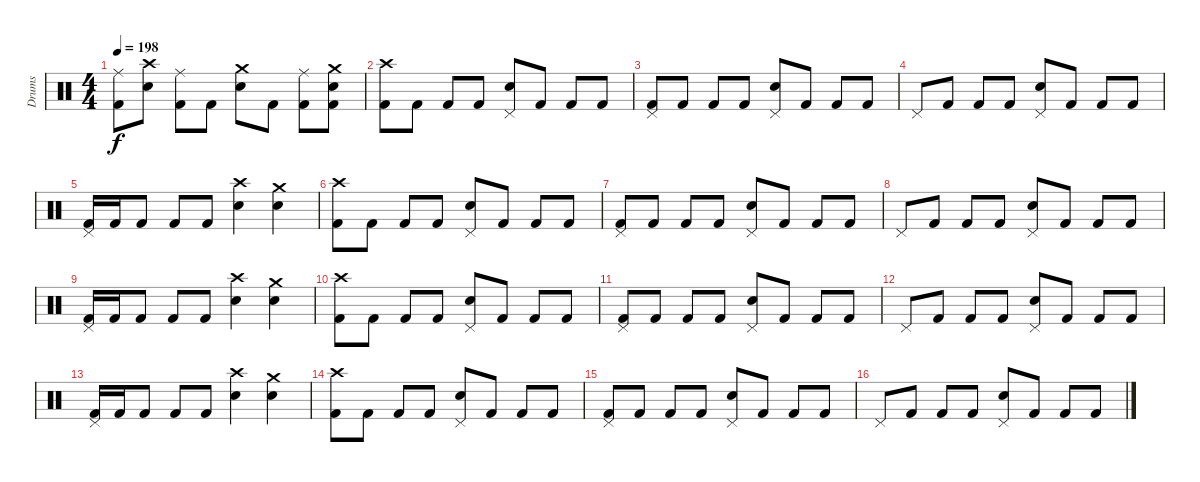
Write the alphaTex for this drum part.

\track ("Drums" "Drums") {instrument percussion}
\staff {score}
\articulation defaults
\ts (4 4)
\tempo 198
\clef neutral
\ks c
("Ride (middle)" "Kick (hit) 2").8{dy f} ("Crash high (hit)" "Electric Snare (hit)").8 ("Ride (middle)" "Kick (hit) 2").8 "Kick (hit) 2".8 ("Crash medium (hit)" "Electric Snare (hit)").8 "Kick (hit) 2".8 ("Ride (middle)" "Kick (hit) 2").8 ("Crash medium (hit)" "Electric Snare (hit)" "Kick (hit) 2").8 |
("Crash high (hit)" "Kick (hit) 2").8 "Kick (hit) 2".8 "Kick (hit) 2".8 "Kick (hit) 2".8 ("Pedal Hi-Hat (hit)" "Electric Snare (hit)").8 "Kick (hit) 2".8 "Kick (hit) 2".8 "Kick (hit) 2".8 |
("Pedal Hi-Hat (hit)" "Kick (hit) 2").8 "Kick (hit) 2".8 "Kick (hit) 2".8 "Kick (hit) 2".8 ("Pedal Hi-Hat (hit)" "Electric Snare (hit)").8 "Kick (hit) 2".8 "Kick (hit) 2".8 "Kick (hit) 2".8 |
"Pedal Hi-Hat (hit)".8 "Kick (hit) 2".8 "Kick (hit) 2".8 "Kick (hit) 2".8 ("Pedal Hi-Hat (hit)" "Electric Snare (hit)").8 "Kick (hit) 2".8 "Kick (hit) 2".8 "Kick (hit) 2".8 |
("Pedal Hi-Hat (hit)" "Kick (hit) 2").16 "Kick (hit) 2".16 "Kick (hit) 2".8 "Kick (hit) 2".8 "Kick (hit) 2".8 ("Crash high (hit)" "Electric Snare (hit)").4 ("Crash medium (hit)" "Electric Snare (hit)").4 |
("Crash high (hit)" "Kick (hit) 2").8 "Kick (hit) 2".8 "Kick (hit) 2".8 "Kick (hit) 2".8 ("Pedal Hi-Hat (hit)" "Electric Snare (hit)").8 "Kick (hit) 2".8 "Kick (hit) 2".8 "Kick (hit) 2".8 |
("Pedal Hi-Hat (hit)" "Kick (hit) 2").8 "Kick (hit) 2".8 "Kick (hit) 2".8 "Kick (hit) 2".8 ("Pedal Hi-Hat (hit)" "Electric Snare (hit)").8 "Kick (hit) 2".8 "Kick (hit) 2".8 "Kick (hit) 2".8 |
"Pedal Hi-Hat (hit)".8 "Kick (hit) 2".8 "Kick (hit) 2".8 "Kick (hit) 2".8 ("Pedal Hi-Hat (hit)" "Electric Snare (hit)").8 "Kick (hit) 2".8 "Kick (hit) 2".8 "Kick (hit) 2".8 |
("Pedal Hi-Hat (hit)" "Kick (hit) 2").16 "Kick (hit) 2".16 "Kick (hit) 2".8 "Kick (hit) 2".8 "Kick (hit) 2".8 ("Crash high (hit)" "Electric Snare (hit)").4 ("Crash medium (hit)" "Electric Snare (hit)").4 |
("Crash high (hit)" "Kick (hit) 2").8 "Kick (hit) 2".8 "Kick (hit) 2".8 "Kick (hit) 2".8 ("Pedal Hi-Hat (hit)" "Electric Snare (hit)").8 "Kick (hit) 2".8 "Kick (hit) 2".8 "Kick (hit) 2".8 |
("Pedal Hi-Hat (hit)" "Kick (hit) 2").8 "Kick (hit) 2".8 "Kick (hit) 2".8 "Kick (hit) 2".8 ("Pedal Hi-Hat (hit)" "Electric Snare (hit)").8 "Kick (hit) 2".8 "Kick (hit) 2".8 "Kick (hit) 2".8 |
"Pedal Hi-Hat (hit)".8 "Kick (hit) 2".8 "Kick (hit) 2".8 "Kick (hit) 2".8 ("Pedal Hi-Hat (hit)" "Electric Snare (hit)").8 "Kick (hit) 2".8 "Kick (hit) 2".8 "Kick (hit) 2".8 |
("Pedal Hi-Hat (hit)" "Kick (hit) 2").16 "Kick (hit) 2".16 "Kick (hit) 2".8 "Kick (hit) 2".8 "Kick (hit) 2".8 ("Crash high (hit)" "Electric Snare (hit)").4 ("Crash medium (hit)" "Electric Snare (hit)").4 |
("Crash high (hit)" "Kick (hit) 2").8 "Kick (hit) 2".8 "Kick (hit) 2".8 "Kick (hit) 2".8 ("Pedal Hi-Hat (hit)" "Electric Snare (hit)").8 "Kick (hit) 2".8 "Kick (hit) 2".8 "Kick (hit) 2".8 |
("Pedal Hi-Hat (hit)" "Kick (hit) 2").8 "Kick (hit) 2".8 "Kick (hit) 2".8 "Kick (hit) 2".8 ("Pedal Hi-Hat (hit)" "Electric Snare (hit)").8 "Kick (hit) 2".8 "Kick (hit) 2".8 "Kick (hit) 2".8 |
"Pedal Hi-Hat (hit)".8 "Kick (hit) 2".8 "Kick (hit) 2".8 "Kick (hit) 2".8 ("Pedal Hi-Hat (hit)" "Electric Snare (hit)").8 "Kick (hit) 2".8 "Kick (hit) 2".8 "Kick (hit) 2".8
